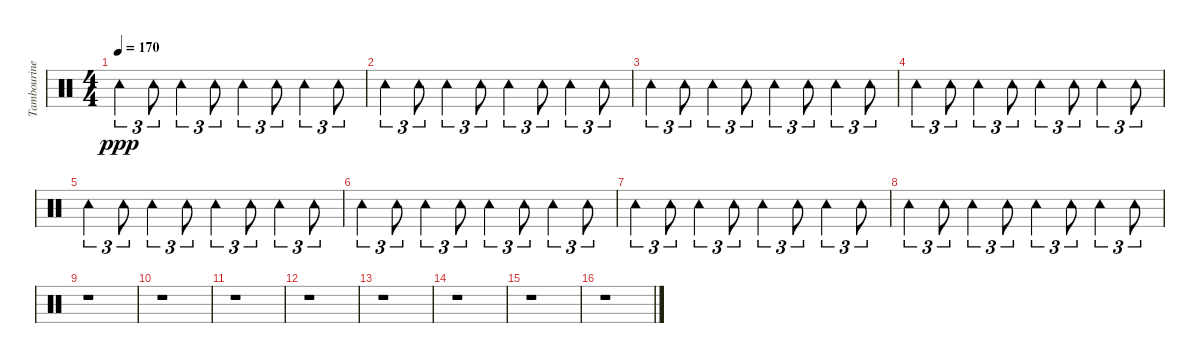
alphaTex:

\track ("Tambourine" "Tambourine") {instrument percussion}
\staff {score}
\articulation defaults
\ts (4 4)
\tempo 170
\clef neutral
\ks c "Tambourine (hit)".4{tu (3 2) dy ppp} "Tambourine (hit)".8{tu (3 2)} "Tambourine (hit)".4{tu (3 2)} "Tambourine (hit)".8{tu (3 2)} "Tambourine (hit)".4{tu (3 2)} "Tambourine (hit)".8{tu (3 2)} "Tambourine (hit)".4{tu (3 2)} "Tambourine (hit)".8{tu (3 2)}
|
"Tambourine (hit)".4{tu (3 2)} "Tambourine (hit)".8{tu (3 2)} "Tambourine (hit)".4{tu (3 2)} "Tambourine (hit)".8{tu (3 2)} "Tambourine (hit)".4{tu (3 2)} "Tambourine (hit)".8{tu (3 2)} "Tambourine (hit)".4{tu (3 2)} "Tambourine (hit)".8{tu (3 2)} |
"Tambourine (hit)".4{tu (3 2)} "Tambourine (hit)".8{tu (3 2)} "Tambourine (hit)".4{tu (3 2)} "Tambourine (hit)".8{tu (3 2)} "Tambourine (hit)".4{tu (3 2)} "Tambourine (hit)".8{tu (3 2)} "Tambourine (hit)".4{tu (3 2)} "Tambourine (hit)".8{tu (3 2)} |
"Tambourine (hit)".4{tu (3 2)} "Tambourine (hit)".8{tu (3 2)} "Tambourine (hit)".4{tu (3 2)} "Tambourine (hit)".8{tu (3 2)} "Tambourine (hit)".4{tu (3 2)} "Tambourine (hit)".8{tu (3 2)} "Tambourine (hit)".4{tu (3 2)} "Tambourine (hit)".8{tu (3 2)} |
"Tambourine (hit)".4{tu (3 2)} "Tambourine (hit)".8{tu (3 2)} "Tambourine (hit)".4{tu (3 2)} "Tambourine (hit)".8{tu (3 2)} "Tambourine (hit)".4{tu (3 2)} "Tambourine (hit)".8{tu (3 2)} "Tambourine (hit)".4{tu (3 2)} "Tambourine (hit)".8{tu (3 2)} |
"Tambourine (hit)".4{tu (3 2)} "Tambourine (hit)".8{tu (3 2)} "Tambourine (hit)".4{tu (3 2)} "Tambourine (hit)".8{tu (3 2)} "Tambourine (hit)".4{tu (3 2)} "Tambourine (hit)".8{tu (3 2)} "Tambourine (hit)".4{tu (3 2)} "Tambourine (hit)".8{tu (3 2)} |
"Tambourine (hit)".4{tu (3 2)} "Tambourine (hit)".8{tu (3 2)} "Tambourine (hit)".4{tu (3 2)} "Tambourine (hit)".8{tu (3 2)} "Tambourine (hit)".4{tu (3 2)} "Tambourine (hit)".8{tu (3 2)} "Tambourine (hit)".4{tu (3 2)} "Tambourine (hit)".8{tu (3 2)} |
"Tambourine (hit)".4{tu (3 2)} "Tambourine (hit)".8{tu (3 2)} "Tambourine (hit)".4{tu (3 2)} "Tambourine (hit)".8{tu (3 2)} "Tambourine (hit)".4{tu (3 2)} "Tambourine (hit)".8{tu (3 2)} "Tambourine (hit)".4{tu (3 2)} "Tambourine (hit)".8{tu (3 2)} |
r.1 |
r.1 |
r.1 |
r.1 |
r.1 |
r.1 |
r.1 |
r.1
